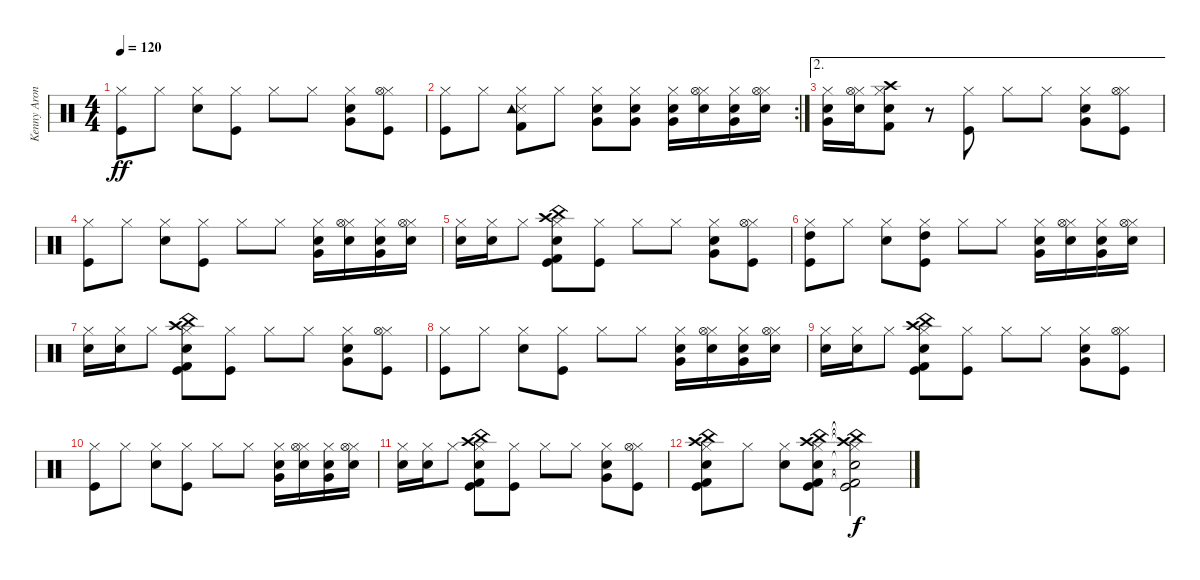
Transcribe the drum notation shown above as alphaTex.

\track ("Kenny Aronoff" "Kenny Aron") {instrument percussion}
\staff {score}
\articulation defaults
\ts (4 4)
\tempo 120
\clef neutral
\ks c
("Kick (hit)" "Hi-Hat (closed)").8{dy ff} "Hi-Hat (closed)".8 ("Snare (hit) 2" "Hi-Hat (closed)").8 ("Kick (hit)" "Hi-Hat (closed)").8 "Hi-Hat (closed)".8 "Hi-Hat (closed)".8 ("Snare (hit) 2" "Hi-Hat (closed)" "Very Low Tom (hit)").8 ("Kick (hit)" "Hi-Hat (closed)" "Hi-Hat (open)").8 |
\rc 2
("Kick (hit)" "Hi-Hat (closed)").8 "Hi-Hat (closed)".8 ("Kick (hit) 2" "Snare (side stick) 3" "Hi-Hat (closed)" "Tambourine (hit)").8 "Hi-Hat (closed)".8 ("Snare (hit) 2" "Hi-Hat (closed)" "Very Low Tom (hit)").8 ("Snare (hit) 2" "Hi-Hat (closed)" "Very Low Tom (hit)").8 ("Snare (hit) 2" "Hi-Hat (closed)" "Very Low Tom (hit)").16 ("Snare (hit) 2" "Hi-Hat (closed)" "Hi-Hat (open)").16 ("Snare (hit) 2" "Hi-Hat (closed)" "Very Low Tom (hit)").16 ("Snare (hit) 2" "Hi-Hat (closed)" "Hi-Hat (open)").16 |
\ae 2
("Snare (hit) 2" "Hi-Hat (closed)" "Very Low Tom (hit)").16 ("Snare (hit) 2" "Hi-Hat (closed)" "Hi-Hat (open)").16 ("Snare (hit) 2" "Kick (hit) 2" "Hi-Hat (closed)" "Crash high (hit)").8 r.8 ("Kick (hit)" "Hi-Hat (closed)").8 "Hi-Hat (closed)".8 "Hi-Hat (closed)".8 ("Snare (hit) 2" "Hi-Hat (closed)" "Very Low Tom (hit)").8 ("Kick (hit)" "Hi-Hat (closed)" "Hi-Hat (open)").8 |
("Kick (hit)" "Hi-Hat (closed)").8 "Hi-Hat (closed)".8 ("Snare (hit) 2" "Hi-Hat (closed)").8 ("Kick (hit)" "Hi-Hat (closed)").8 "Hi-Hat (closed)".8 "Hi-Hat (closed)".8 ("Snare (hit) 2" "Hi-Hat (closed)" "Very Low Tom (hit)").16 ("Snare (hit) 2" "Hi-Hat (closed)" "Hi-Hat (open)").16 ("Snare (hit) 2" "Hi-Hat (closed)" "Very Low Tom (hit)").16 ("Snare (hit) 2" "Hi-Hat (closed)" "Hi-Hat (open)").16 |
("Snare (hit) 2" "Hi-Hat (closed)").16 ("Snare (hit) 2" "Hi-Hat (closed)").16 "Hi-Hat (closed)".8 ("Snare (hit) 2" "Hi-Hat (closed)" "Kick (hit) 2" "Kick (hit)" "Crash high (hit)" "China (hit)").8 ("Kick (hit)" "Hi-Hat (closed)").8 "Hi-Hat (closed)".8 "Hi-Hat (closed)".8 ("Snare (hit) 2" "Hi-Hat (closed)" "Very Low Tom (hit)").8 ("Kick (hit)" "Hi-Hat (closed)" "Hi-Hat (open)").8 |
("Kick (hit)" "Hi-Hat (closed)" "High Tom (hit)").8 "Hi-Hat (closed)".8 ("Snare (hit) 2" "Hi-Hat (closed)").8 ("Kick (hit)" "Hi-Hat (closed)" "High Tom (hit)").8 "Hi-Hat (closed)".8 "Hi-Hat (closed)".8 ("Snare (hit) 2" "Hi-Hat (closed)" "Very Low Tom (hit)").16 ("Snare (hit) 2" "Hi-Hat (closed)" "Hi-Hat (open)").16 ("Snare (hit) 2" "Hi-Hat (closed)" "Very Low Tom (hit)").16 ("Snare (hit) 2" "Hi-Hat (closed)" "Hi-Hat (open)").16 |
("Snare (hit) 2" "Hi-Hat (closed)").16 ("Snare (hit) 2" "Hi-Hat (closed)").16 "Hi-Hat (closed)".8 ("Snare (hit) 2" "Hi-Hat (closed)" "Kick (hit) 2" "Kick (hit)" "Crash high (hit)" "China (hit)").8 ("Kick (hit)" "Hi-Hat (closed)").8 "Hi-Hat (closed)".8 "Hi-Hat (closed)".8 ("Snare (hit) 2" "Hi-Hat (closed)" "Very Low Tom (hit)").8 ("Kick (hit)" "Hi-Hat (closed)" "Hi-Hat (open)").8 |
("Kick (hit)" "Hi-Hat (closed)").8 "Hi-Hat (closed)".8 ("Snare (hit) 2" "Hi-Hat (closed)").8 ("Kick (hit)" "Hi-Hat (closed)").8 "Hi-Hat (closed)".8 "Hi-Hat (closed)".8 ("Snare (hit) 2" "Hi-Hat (closed)" "Very Low Tom (hit)").16 ("Snare (hit) 2" "Hi-Hat (closed)" "Hi-Hat (open)").16 ("Snare (hit) 2" "Hi-Hat (closed)" "Very Low Tom (hit)").16 ("Snare (hit) 2" "Hi-Hat (closed)" "Hi-Hat (open)").16 |
("Snare (hit) 2" "Hi-Hat (closed)").16 ("Snare (hit) 2" "Hi-Hat (closed)").16 "Hi-Hat (closed)".8 ("Snare (hit) 2" "Hi-Hat (closed)" "Kick (hit) 2" "Kick (hit)" "Crash high (hit)" "China (hit)").8 ("Kick (hit)" "Hi-Hat (closed)").8 "Hi-Hat (closed)".8 "Hi-Hat (closed)".8 ("Snare (hit) 2" "Hi-Hat (closed)" "Very Low Tom (hit)").8 ("Kick (hit)" "Hi-Hat (closed)" "Hi-Hat (open)").8 |
("Kick (hit)" "Hi-Hat (closed)").8 "Hi-Hat (closed)".8 ("Snare (hit) 2" "Hi-Hat (closed)").8 ("Kick (hit)" "Hi-Hat (closed)").8 "Hi-Hat (closed)".8 "Hi-Hat (closed)".8 ("Snare (hit) 2" "Hi-Hat (closed)" "Very Low Tom (hit)").16 ("Snare (hit) 2" "Hi-Hat (closed)" "Hi-Hat (open)").16 ("Snare (hit) 2" "Hi-Hat (closed)" "Very Low Tom (hit)").16 ("Snare (hit) 2" "Hi-Hat (closed)" "Hi-Hat (open)").16 |
("Snare (hit) 2" "Hi-Hat (closed)").16 ("Snare (hit) 2" "Hi-Hat (closed)").16 "Hi-Hat (closed)".8 ("Snare (hit) 2" "Hi-Hat (closed)" "Kick (hit) 2" "Kick (hit)" "Crash high (hit)" "China (hit)").8 ("Kick (hit)" "Hi-Hat (closed)").8 "Hi-Hat (closed)".8 "Hi-Hat (closed)".8 ("Snare (hit) 2" "Hi-Hat (closed)" "Very Low Tom (hit)").8 ("Kick (hit)" "Hi-Hat (closed)" "Hi-Hat (open)").8 |
("Snare (hit) 2" "Hi-Hat (closed)" "Kick (hit) 2" "Kick (hit)" "Crash high (hit)" "China (hit)").8 "Hi-Hat (closed)".8 ("Snare (hit) 2" "Hi-Hat (closed)").8 ("Snare (hit) 2" "Hi-Hat (closed)" "Kick (hit) 2" "Kick (hit)" "Crash high (hit)" "China (hit)").8 ("Snare (hit) 2"{t} "Hi-Hat (closed)"{t} "Kick (hit) 2"{t} "Kick (hit)"{t} "Crash high (hit)"{t} "China (hit)"{t}).2{dy f}
